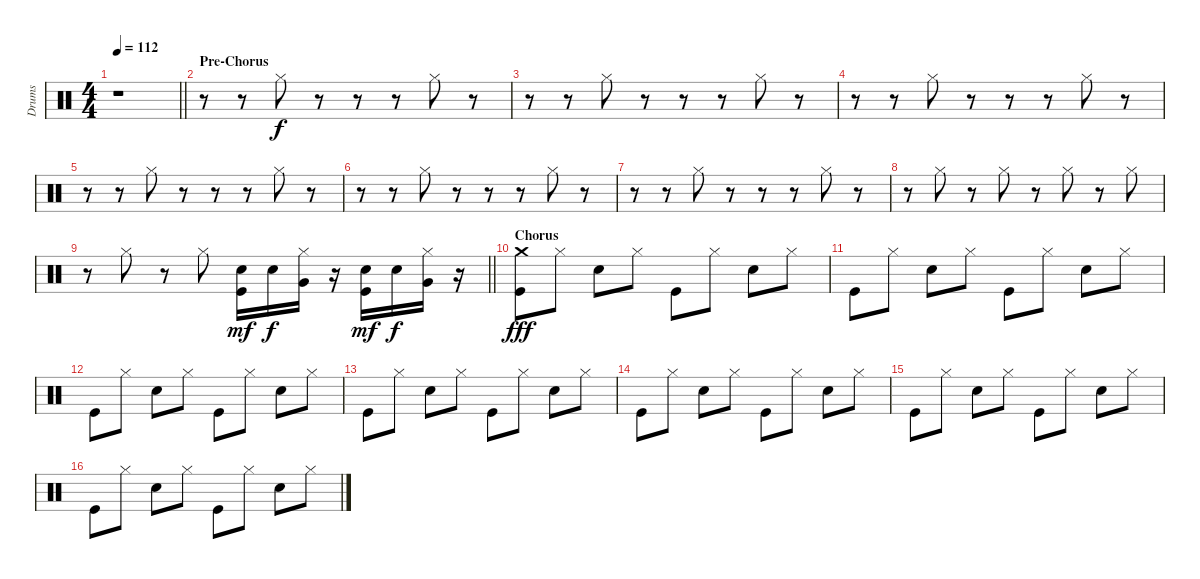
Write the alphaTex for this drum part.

\track ("Drums" "Drums") {instrument percussion}
\staff {score}
\articulation defaults
\ts (4 4)
\tempo 112
\clef neutral
\barLineRight lightlight
\ks c
r.1{dy f} |
\section ("" "Pre-Chorus")
r.8 r.8 "Hi-Hat (closed)".8 r.8 r.8 r.8 "Hi-Hat (closed)".8 r.8 |
r.8 r.8 "Hi-Hat (closed)".8 r.8 r.8 r.8 "Hi-Hat (closed)".8 r.8 |
r.8 r.8 "Hi-Hat (closed)".8 r.8 r.8 r.8 "Hi-Hat (closed)".8 r.8 |
r.8 r.8 "Hi-Hat (closed)".8 r.8 r.8 r.8 "Hi-Hat (closed)".8 r.8 |
r.8 r.8 "Hi-Hat (closed)".8 r.8 r.8 r.8 "Hi-Hat (closed)".8 r.8 |
r.8 r.8 "Hi-Hat (closed)".8 r.8 r.8 r.8 "Hi-Hat (closed)".8 r.8 |
r.8 "Hi-Hat (closed)".8 r.8 "Hi-Hat (closed)".8 r.8 "Hi-Hat (closed)".8 r.8 "Hi-Hat (closed)".8 |
\barLineRight lightlight
r.8 "Hi-Hat (closed)".8 r.8 "Hi-Hat (closed)".8 ("Snare (hit) 2" "Kick (hit)").16{dy mf} "Snare (hit) 2".16{dy f} ("Hi-Hat (closed)" "Very Low Tom (hit)").16 r.16 ("Snare (hit) 2" "Kick (hit)").16{dy mf} "Snare (hit) 2".16{dy f} ("Hi-Hat (closed)" "Very Low Tom (hit)").16 r.16 |
\section ("" "Chorus")
("Crash medium (hit)" "Kick (hit)").8{dy fff} "Hi-Hat (closed)".8 "Snare (hit) 2".8 "Hi-Hat (closed)".8 "Kick (hit)".8 "Hi-Hat (closed)".8 "Snare (hit) 2".8 "Hi-Hat (closed)".8 |
"Kick (hit)".8 "Hi-Hat (closed)".8 "Snare (hit) 2".8 "Hi-Hat (closed)".8 "Kick (hit)".8 "Hi-Hat (closed)".8 "Snare (hit) 2".8 "Hi-Hat (closed)".8 |
"Kick (hit)".8 "Hi-Hat (closed)".8 "Snare (hit) 2".8 "Hi-Hat (closed)".8 "Kick (hit)".8 "Hi-Hat (closed)".8 "Snare (hit) 2".8 "Hi-Hat (closed)".8 |
"Kick (hit)".8 "Hi-Hat (closed)".8 "Snare (hit) 2".8 "Hi-Hat (closed)".8 "Kick (hit)".8 "Hi-Hat (closed)".8 "Snare (hit) 2".8 "Hi-Hat (closed)".8 |
"Kick (hit)".8 "Hi-Hat (closed)".8 "Snare (hit) 2".8 "Hi-Hat (closed)".8 "Kick (hit)".8 "Hi-Hat (closed)".8 "Snare (hit) 2".8 "Hi-Hat (closed)".8 |
"Kick (hit)".8 "Hi-Hat (closed)".8 "Snare (hit) 2".8 "Hi-Hat (closed)".8 "Kick (hit)".8 "Hi-Hat (closed)".8 "Snare (hit) 2".8 "Hi-Hat (closed)".8 |
"Kick (hit)".8 "Hi-Hat (closed)".8 "Snare (hit) 2".8 "Hi-Hat (closed)".8 "Kick (hit)".8 "Hi-Hat (closed)".8 "Snare (hit) 2".8 "Hi-Hat (closed)".8
